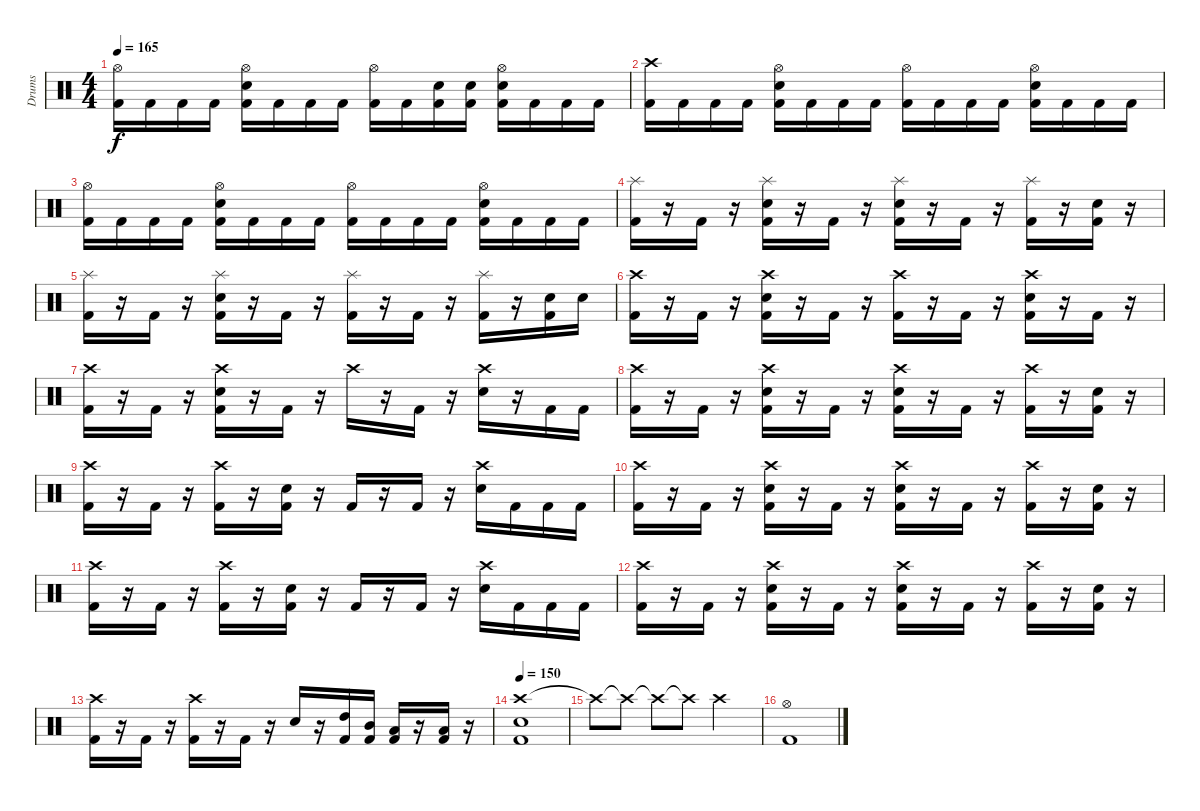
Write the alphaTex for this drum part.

\track ("Drums" "Drums") {instrument percussion}
\staff {score}
\articulation defaults
\ts (4 4)
\tempo 165
\clef neutral
\ks c
("Hi-Hat (open)" "Kick (hit) 2").16{dy f} "Kick (hit) 2".16 "Kick (hit) 2".16 "Kick (hit) 2".16 ("Hi-Hat (open)" "Electric Snare (hit)" "Kick (hit) 2").16 "Kick (hit) 2".16 "Kick (hit) 2".16 "Kick (hit) 2".16 ("Hi-Hat (open)" "Kick (hit) 2").16 "Kick (hit) 2".16 ("Electric Snare (hit)" "Kick (hit) 2").16 ("Electric Snare (hit)" "Kick (hit) 2").16 ("Hi-Hat (open)" "Electric Snare (hit)" "Kick (hit) 2").16 "Kick (hit) 2".16 "Kick (hit) 2".16 "Kick (hit) 2".16 |
("Crash high (hit)" "Kick (hit) 2").16 "Kick (hit) 2".16 "Kick (hit) 2".16 "Kick (hit) 2".16 ("Hi-Hat (open)" "Electric Snare (hit)" "Kick (hit) 2").16 "Kick (hit) 2".16 "Kick (hit) 2".16 "Kick (hit) 2".16 ("Hi-Hat (open)" "Kick (hit) 2").16 "Kick (hit) 2".16 "Kick (hit) 2".16 "Kick (hit) 2".16 ("Hi-Hat (open)" "Electric Snare (hit)" "Kick (hit) 2").16 "Kick (hit) 2".16 "Kick (hit) 2".16 "Kick (hit) 2".16 |
("Hi-Hat (open)" "Kick (hit) 2").16 "Kick (hit) 2".16 "Kick (hit) 2".16 "Kick (hit) 2".16 ("Hi-Hat (open)" "Electric Snare (hit)" "Kick (hit) 2").16 "Kick (hit) 2".16 "Kick (hit) 2".16 "Kick (hit) 2".16 ("Hi-Hat (open)" "Kick (hit) 2").16 "Kick (hit) 2".16 "Kick (hit) 2".16 "Kick (hit) 2".16 ("Hi-Hat (open)" "Electric Snare (hit)" "Kick (hit) 2").16 "Kick (hit) 2".16 "Kick (hit) 2".16 "Kick (hit) 2".16 |
("Splash (hit)" "Kick (hit) 2").16 r.16 "Kick (hit) 2".16 r.16 ("Splash (hit)" "Electric Snare (hit)" "Kick (hit) 2").16 r.16 "Kick (hit) 2".16 r.16 ("Splash (hit)" "Electric Snare (hit)" "Kick (hit) 2").16 r.16 "Kick (hit) 2".16 r.16 ("Splash (hit)" "Kick (hit) 2").16 r.16 ("Electric Snare (hit)" "Kick (hit) 2").16 r.16 |
("Splash (hit)" "Kick (hit) 2").16 r.16 "Kick (hit) 2".16 r.16 ("Splash (hit)" "Electric Snare (hit)" "Kick (hit) 2").16 r.16 "Kick (hit) 2".16 r.16 ("Splash (hit)" "Kick (hit) 2").16 r.16 "Kick (hit) 2".16 r.16 ("Splash (hit)" "Kick (hit) 2").16 r.16 ("Electric Snare (hit)" "Kick (hit) 2").16 "Electric Snare (hit)".16 |
("Crash high (hit)" "Kick (hit) 2").16 r.16 "Kick (hit) 2".16 r.16 ("Crash high (hit)" "Electric Snare (hit)" "Kick (hit) 2").16 r.16 "Kick (hit) 2".16 r.16 ("Crash high (hit)" "Kick (hit) 2").16 r.16 "Kick (hit) 2".16 r.16 ("Crash high (hit)" "Electric Snare (hit)" "Kick (hit) 2").16 r.16 "Kick (hit) 2".16 r.16 |
("Crash high (hit)" "Kick (hit) 2").16 r.16 "Kick (hit) 2".16 r.16 ("Crash high (hit)" "Electric Snare (hit)" "Kick (hit) 2").16 r.16 "Kick (hit) 2".16 r.16 "Crash high (hit)".16 r.16 "Kick (hit) 2".16 r.16 ("Crash high (hit)" "Electric Snare (hit)").16 r.16 "Kick (hit) 2".16 "Kick (hit) 2".16 |
("Crash high (hit)" "Kick (hit) 2").16 r.16 "Kick (hit) 2".16 r.16 ("Crash high (hit)" "Electric Snare (hit)" "Kick (hit) 2").16 r.16 "Kick (hit) 2".16 r.16 ("Crash high (hit)" "Electric Snare (hit)" "Kick (hit) 2").16 r.16 "Kick (hit) 2".16 r.16 ("Crash high (hit)" "Kick (hit) 2").16 r.16 ("Electric Snare (hit)" "Kick (hit) 2").16 r.16 |
("Crash high (hit)" "Kick (hit) 2").16 r.16 "Kick (hit) 2".16 r.16 ("Crash high (hit)" "Kick (hit) 2").16 r.16 ("Electric Snare (hit)" "Kick (hit) 2").16 r.16 "Kick (hit) 2".16 r.16 "Kick (hit) 2".16 r.16 ("Crash high (hit)" "Electric Snare (hit)").16 "Kick (hit) 2".16 "Kick (hit) 2".16 "Kick (hit) 2".16 |
("Crash high (hit)" "Kick (hit) 2").16 r.16 "Kick (hit) 2".16 r.16 ("Crash high (hit)" "Electric Snare (hit)" "Kick (hit) 2").16 r.16 "Kick (hit) 2".16 r.16 ("Crash high (hit)" "Electric Snare (hit)" "Kick (hit) 2").16 r.16 "Kick (hit) 2".16 r.16 ("Crash high (hit)" "Kick (hit) 2").16 r.16 ("Electric Snare (hit)" "Kick (hit) 2").16 r.16 |
("Crash high (hit)" "Kick (hit) 2").16 r.16 "Kick (hit) 2".16 r.16 ("Crash high (hit)" "Kick (hit) 2").16 r.16 ("Electric Snare (hit)" "Kick (hit) 2").16 r.16 "Kick (hit) 2".16 r.16 "Kick (hit) 2".16 r.16 ("Crash high (hit)" "Electric Snare (hit)").16 "Kick (hit) 2".16 "Kick (hit) 2".16 "Kick (hit) 2".16 |
("Crash high (hit)" "Kick (hit) 2").16 r.16 "Kick (hit) 2".16 r.16 ("Crash high (hit)" "Electric Snare (hit)" "Kick (hit) 2").16 r.16 "Kick (hit) 2".16 r.16 ("Crash high (hit)" "Electric Snare (hit)" "Kick (hit) 2").16 r.16 "Kick (hit) 2".16 r.16 ("Crash high (hit)" "Kick (hit) 2").16 r.16 ("Electric Snare (hit)" "Kick (hit) 2").16 r.16 |
("Crash high (hit)" "Kick (hit) 2").16 r.16 "Kick (hit) 2".16 r.16 ("Crash high (hit)" "Kick (hit) 2").16 r.16 "Kick (hit) 2".16 r.16 "Electric Snare (hit)".16 r.16 ("High Tom (hit)" "Kick (hit) 2").16 ("Mid Tom (hit)" "Kick (hit) 2").16 ("Low Tom (hit)" "Kick (hit) 2").16 r.16 ("Low Tom (hit)" "Kick (hit) 2").16 r.16 |
\tempo 150
("Crash high (hit)" "Electric Snare (hit)" "Kick (hit) 2").1 |
"Crash high (hit)"{t}.8 "Crash high (hit)"{t}.8 "Crash high (hit)"{t}.8 "Crash high (hit)"{t}.8{volume 0} "Crash high (hit)".2{volume 16} |
("Hi-Hat (open)" "Kick (hit) 2").1
